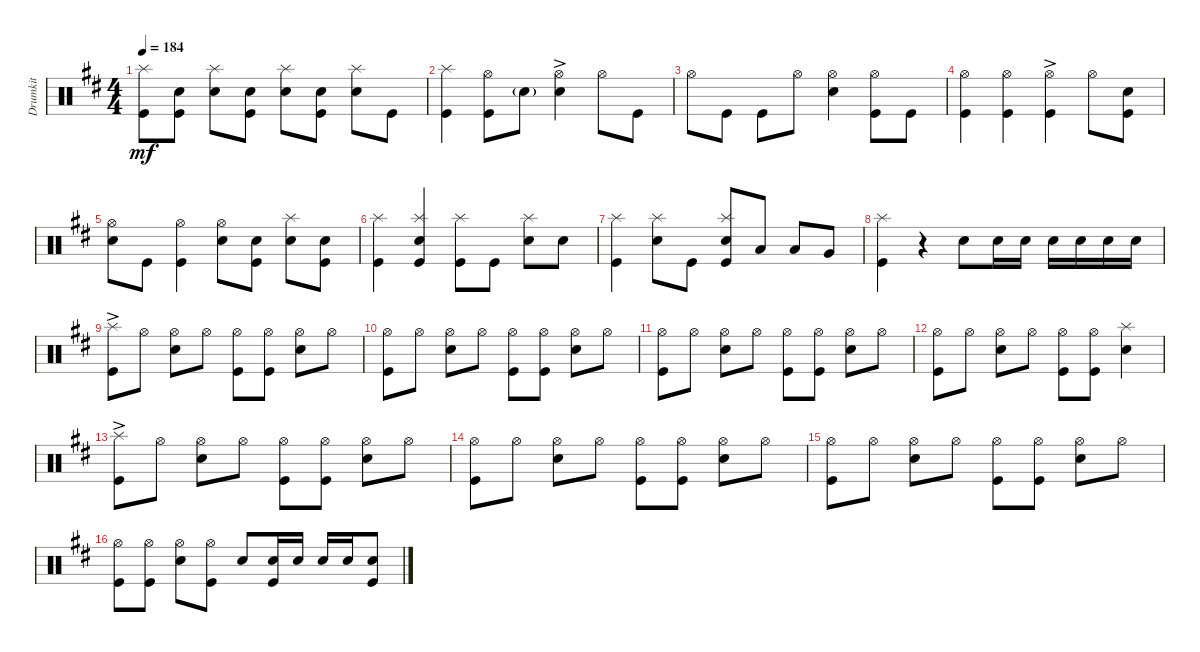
\track ("Drumkit" "Drumkit") {instrument percussion}
\staff {score}
\articulation defaults
\ts (4 4)
\tempo 184
\clef neutral
\ks d
("Kick (hit)" "Splash (hit)").8{dy mf} ("Kick (hit)" "Snare (hit) 2").8 ("Splash (hit)" "Snare (hit) 2").8 ("Snare (hit) 2" "Kick (hit)").8 ("Snare (hit) 2" "Splash (hit)").8 ("Snare (hit) 2" "Kick (hit)").8 ("Snare (hit) 2" "Splash (hit)").8 "Kick (hit)".8 |
("Kick (hit)" "Splash (hit)").4 ("Kick (hit)" "Hi-Hat (open)").8 "Snare (hit) 2"{g}.8 ("Snare (hit) 2" "Hi-Hat (open)"{ac}).4 "Hi-Hat (open)".8 "Kick (hit)".8 |
"Hi-Hat (open)".8 "Kick (hit)".8 "Kick (hit)".8 "Hi-Hat (open)".8 ("Hi-Hat (open)" "Snare (hit) 2").4 ("Kick (hit)" "Hi-Hat (open)").8 "Kick (hit)".8 |
("Kick (hit)" "Hi-Hat (open)").4 ("Kick (hit)" "Hi-Hat (open)").4 ("Kick (hit)" "Hi-Hat (open)"{ac}).4 "Hi-Hat (open)".8 ("Snare (hit) 2" "Kick (hit)").8 |
("Snare (hit) 2" "Hi-Hat (open)").8 "Kick (hit)".8 ("Kick (hit)" "Hi-Hat (open)").4 ("Snare (hit) 2" "Hi-Hat (open)").8 ("Snare (hit) 2" "Kick (hit)").8 ("Snare (hit) 2" "Splash (hit)").8 ("Snare (hit) 2" "Kick (hit)").8 |
("Kick (hit)" "Splash (hit)").4 ("Kick (hit)" "Snare (hit) 2" "Splash (hit)").4 ("Kick (hit)" "Splash (hit)").8 "Kick (hit)".8 ("Snare (hit) 2" "Splash (hit)").8 "Snare (hit) 2".8 |
("Kick (hit)" "Splash (hit)").4 ("Snare (hit) 2" "Splash (hit)").8 "Kick (hit)".8 ("Kick (hit)" "Snare (hit) 2" "Splash (hit)").8 "Low Tom (hit)".8 "Low Tom (hit)".8 "Very Low Tom (hit)".8 |
("Kick (hit)" "Splash (hit)").4 r.4 "Snare (hit) 2".8 "Snare (hit) 2".16 "Snare (hit) 2".16 "Snare (hit) 2".16 "Snare (hit) 2".16 "Snare (hit) 2".16 "Snare (hit) 2".16 |
("Kick (hit)" "Splash (hit)"{ac}).8 "Hi-Hat (open)".8 ("Hi-Hat (open)" "Snare (hit) 2").8 "Hi-Hat (open)".8 ("Hi-Hat (open)" "Kick (hit)").8 ("Hi-Hat (open)" "Kick (hit)").8 ("Hi-Hat (open)" "Snare (hit) 2").8 "Hi-Hat (open)".8 |
("Kick (hit)" "Hi-Hat (open)").8 "Hi-Hat (open)".8 ("Hi-Hat (open)" "Snare (hit) 2").8 "Hi-Hat (open)".8 ("Hi-Hat (open)" "Kick (hit)").8 ("Hi-Hat (open)" "Kick (hit)").8 ("Hi-Hat (open)" "Snare (hit) 2").8 "Hi-Hat (open)".8 |
("Kick (hit)" "Hi-Hat (open)").8 "Hi-Hat (open)".8 ("Hi-Hat (open)" "Snare (hit) 2").8 "Hi-Hat (open)".8 ("Hi-Hat (open)" "Kick (hit)").8 ("Hi-Hat (open)" "Kick (hit)").8 ("Hi-Hat (open)" "Snare (hit) 2").8 "Hi-Hat (open)".8 |
("Kick (hit)" "Hi-Hat (open)").8 "Hi-Hat (open)".8 ("Hi-Hat (open)" "Snare (hit) 2").8 "Hi-Hat (open)".8 ("Hi-Hat (open)" "Kick (hit)").8 ("Hi-Hat (open)" "Kick (hit)").8 ("Snare (hit) 2" "Splash (hit)").4 |
("Kick (hit)" "Splash (hit)"{ac}).8 "Hi-Hat (open)".8 ("Hi-Hat (open)" "Snare (hit) 2").8 "Hi-Hat (open)".8 ("Hi-Hat (open)" "Kick (hit)").8 ("Hi-Hat (open)" "Kick (hit)").8 ("Hi-Hat (open)" "Snare (hit) 2").8 "Hi-Hat (open)".8 |
("Kick (hit)" "Hi-Hat (open)").8 "Hi-Hat (open)".8 ("Hi-Hat (open)" "Snare (hit) 2").8 "Hi-Hat (open)".8 ("Hi-Hat (open)" "Kick (hit)").8 ("Hi-Hat (open)" "Kick (hit)").8 ("Hi-Hat (open)" "Snare (hit) 2").8 "Hi-Hat (open)".8 |
("Kick (hit)" "Hi-Hat (open)").8 "Hi-Hat (open)".8 ("Hi-Hat (open)" "Snare (hit) 2").8 "Hi-Hat (open)".8 ("Hi-Hat (open)" "Kick (hit)").8 ("Hi-Hat (open)" "Kick (hit)").8 ("Hi-Hat (open)" "Snare (hit) 2").8 "Hi-Hat (open)".8 |
("Hi-Hat (open)" "Kick (hit)").8 ("Hi-Hat (open)" "Kick (hit)").8 ("Hi-Hat (open)" "Snare (hit) 2").8 ("Hi-Hat (open)" "Kick (hit)").8 "Snare (hit) 2".8 ("Snare (hit) 2" "Kick (hit)").16 "Snare (hit) 2".16 "Snare (hit) 2".16 "Snare (hit) 2".16 ("Kick (hit)" "Snare (hit) 2").8
